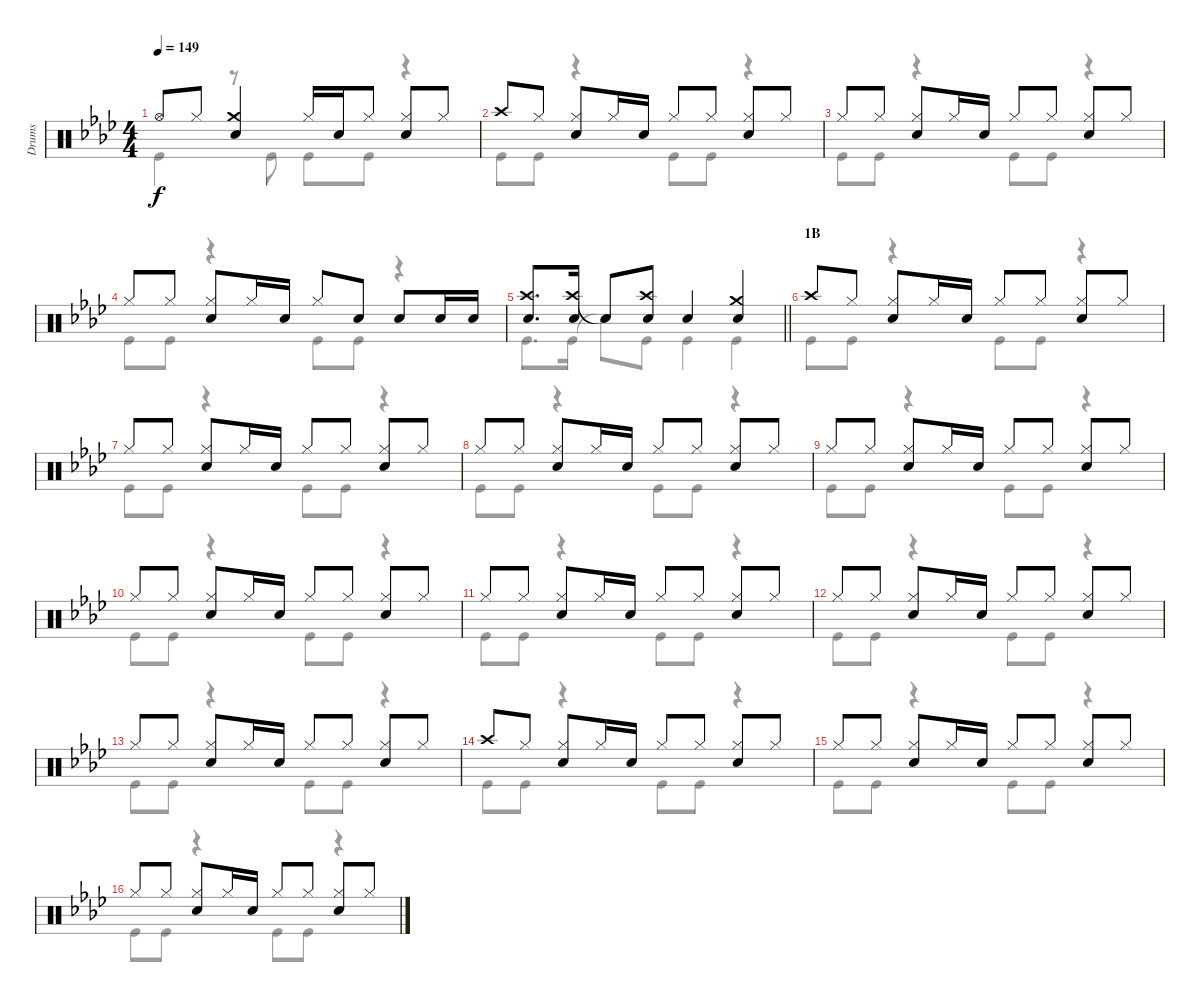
\track ("Drums" "Drums") {instrument percussion}
\staff {score}
\articulation defaults
\voice
\ts (4 4)
\tempo 149
\clef neutral
\ks ab "Hi-Hat (open)".8{dy f} "Hi-Hat (closed)".8
("Crash medium (hit)" "Snare (hit) 2").4 "Hi-Hat (closed)".16 "Snare (hit) 2".16 "Hi-Hat (closed)".8 ("Hi-Hat (closed)" "Snare (hit) 2").8 "Hi-Hat (closed)".8 |
"Crash high (hit)".8 "Hi-Hat (closed)".8 ("Hi-Hat (closed)" "Snare (hit) 2").8 "Hi-Hat (closed)".16 "Snare (hit) 2".16 "Hi-Hat (closed)".8 "Hi-Hat (closed)".8 ("Hi-Hat (closed)" "Snare (hit) 2").8 "Hi-Hat (closed)".8 |
"Hi-Hat (closed)".8 "Hi-Hat (closed)".8 ("Hi-Hat (closed)" "Snare (hit) 2").8 "Hi-Hat (closed)".16 "Snare (hit) 2".16 "Hi-Hat (closed)".8 "Hi-Hat (closed)".8 ("Hi-Hat (closed)" "Snare (hit) 2").8 "Hi-Hat (closed)".8 |
"Hi-Hat (closed)".8 "Hi-Hat (closed)".8 ("Hi-Hat (closed)" "Snare (hit) 2").8 "Hi-Hat (closed)".16 "Snare (hit) 2".16 "Hi-Hat (closed)".8 "Snare (hit) 2".8 "Snare (hit) 2".8 "Snare (hit) 2".16 "Snare (hit) 2".16 |
\barLineRight lightlight
("Crash high (hit)" "Snare (hit) 2").8{d} ("Crash high (hit)" "Snare (hit) 2").16 "Snare (hit)"{t}.8 ("Crash high (hit)" "Snare (hit) 2").8 "Snare (hit) 2".4 ("Crash medium (hit)" "Snare (hit) 2").4 |
\section ("" "1B")
"Crash high (hit)".8 "Hi-Hat (closed)".8 ("Hi-Hat (closed)" "Snare (hit) 2").8 "Hi-Hat (closed)".16 "Snare (hit) 2".16 "Hi-Hat (closed)".8 "Hi-Hat (closed)".8 ("Hi-Hat (closed)" "Snare (hit) 2").8 "Hi-Hat (closed)".8 |
"Hi-Hat (closed)".8 "Hi-Hat (closed)".8 ("Hi-Hat (closed)" "Snare (hit) 2").8 "Hi-Hat (closed)".16 "Snare (hit) 2".16 "Hi-Hat (closed)".8 "Hi-Hat (closed)".8 ("Hi-Hat (closed)" "Snare (hit) 2").8 "Hi-Hat (closed)".8 |
"Hi-Hat (closed)".8 "Hi-Hat (closed)".8 ("Hi-Hat (closed)" "Snare (hit) 2").8 "Hi-Hat (closed)".16 "Snare (hit) 2".16 "Hi-Hat (closed)".8 "Hi-Hat (closed)".8 ("Hi-Hat (closed)" "Snare (hit) 2").8 "Hi-Hat (closed)".8 |
"Hi-Hat (closed)".8 "Hi-Hat (closed)".8 ("Hi-Hat (closed)" "Snare (hit) 2").8 "Hi-Hat (closed)".16 "Snare (hit) 2".16 "Hi-Hat (closed)".8 "Hi-Hat (closed)".8 ("Hi-Hat (closed)" "Snare (hit) 2").8 "Hi-Hat (closed)".8 |
"Hi-Hat (closed)".8 "Hi-Hat (closed)".8 ("Hi-Hat (closed)" "Snare (hit) 2").8 "Hi-Hat (closed)".16 "Snare (hit) 2".16 "Hi-Hat (closed)".8 "Hi-Hat (closed)".8 ("Hi-Hat (closed)" "Snare (hit) 2").8 "Hi-Hat (closed)".8 |
"Hi-Hat (closed)".8 "Hi-Hat (closed)".8 ("Hi-Hat (closed)" "Snare (hit) 2").8 "Hi-Hat (closed)".16 "Snare (hit) 2".16 "Hi-Hat (closed)".8 "Hi-Hat (closed)".8 ("Hi-Hat (closed)" "Snare (hit) 2").8 "Hi-Hat (closed)".8 |
"Hi-Hat (closed)".8 "Hi-Hat (closed)".8 ("Hi-Hat (closed)" "Snare (hit) 2").8 "Hi-Hat (closed)".16 "Snare (hit) 2".16 "Hi-Hat (closed)".8 "Hi-Hat (closed)".8 ("Hi-Hat (closed)" "Snare (hit) 2").8 "Hi-Hat (closed)".8 |
"Hi-Hat (closed)".8 "Hi-Hat (closed)".8 ("Hi-Hat (closed)" "Snare (hit) 2").8 "Hi-Hat (closed)".16 "Snare (hit) 2".16 "Hi-Hat (closed)".8 "Hi-Hat (closed)".8 ("Hi-Hat (closed)" "Snare (hit) 2").8 "Hi-Hat (closed)".8 |
"Crash high (hit)".8 "Hi-Hat (closed)".8 ("Hi-Hat (closed)" "Snare (hit) 2").8 "Hi-Hat (closed)".16 "Snare (hit) 2".16 "Hi-Hat (closed)".8 "Hi-Hat (closed)".8 ("Hi-Hat (closed)" "Snare (hit) 2").8 "Hi-Hat (closed)".8 |
"Hi-Hat (closed)".8 "Hi-Hat (closed)".8 ("Hi-Hat (closed)" "Snare (hit) 2").8 "Hi-Hat (closed)".16 "Snare (hit) 2".16 "Hi-Hat (closed)".8 "Hi-Hat (closed)".8 ("Hi-Hat (closed)" "Snare (hit) 2").8 "Hi-Hat (closed)".8 |
"Hi-Hat (closed)".8 "Hi-Hat (closed)".8 ("Hi-Hat (closed)" "Snare (hit) 2").8 "Hi-Hat (closed)".16 "Snare (hit) 2".16 "Hi-Hat (closed)".8 "Hi-Hat (closed)".8 ("Hi-Hat (closed)" "Snare (hit) 2").8 "Hi-Hat (closed)".8
\voice
\clef neutral
\ottava regular
\simile none
\ks ab "Kick (hit)".4{dy f}
r.8 "Kick (hit)".8 "Kick (hit)".8 "Kick (hit)".8 r.4 |
"Kick (hit)".8 "Kick (hit)".8 r.4 "Kick (hit)".8 "Kick (hit)".8 r.4 |
"Kick (hit)".8 "Kick (hit)".8 r.4 "Kick (hit)".8 "Kick (hit)".8 r.4 |
"Kick (hit)".8 "Kick (hit)".8 r.4 "Kick (hit)".8 "Kick (hit)".8 r.4 |
\barLineRight lightlight "Kick (hit)".8{d} "Kick (hit)".16 "Snare (hit)"{t}.8 "Kick (hit)".8 "Kick (hit)".4 "Kick (hit)".4
|
"Kick (hit)".8 "Kick (hit)".8 r.4 "Kick (hit)".8 "Kick (hit)".8 r.4 |
"Kick (hit)".8 "Kick (hit)".8 r.4 "Kick (hit)".8 "Kick (hit)".8 r.4 |
"Kick (hit)".8 "Kick (hit)".8 r.4 "Kick (hit)".8 "Kick (hit)".8 r.4 |
"Kick (hit)".8 "Kick (hit)".8 r.4 "Kick (hit)".8 "Kick (hit)".8 r.4 |
"Kick (hit)".8 "Kick (hit)".8 r.4 "Kick (hit)".8 "Kick (hit)".8 r.4 |
"Kick (hit)".8 "Kick (hit)".8 r.4 "Kick (hit)".8 "Kick (hit)".8 r.4 |
"Kick (hit)".8 "Kick (hit)".8 r.4 "Kick (hit)".8 "Kick (hit)".8 r.4 |
"Kick (hit)".8 "Kick (hit)".8 r.4 "Kick (hit)".8 "Kick (hit)".8 r.4 |
"Kick (hit)".8 "Kick (hit)".8 r.4 "Kick (hit)".8 "Kick (hit)".8 r.4 |
"Kick (hit)".8 "Kick (hit)".8 r.4 "Kick (hit)".8 "Kick (hit)".8 r.4 |
"Kick (hit)".8 "Kick (hit)".8 r.4 "Kick (hit)".8 "Kick (hit)".8 r.4
